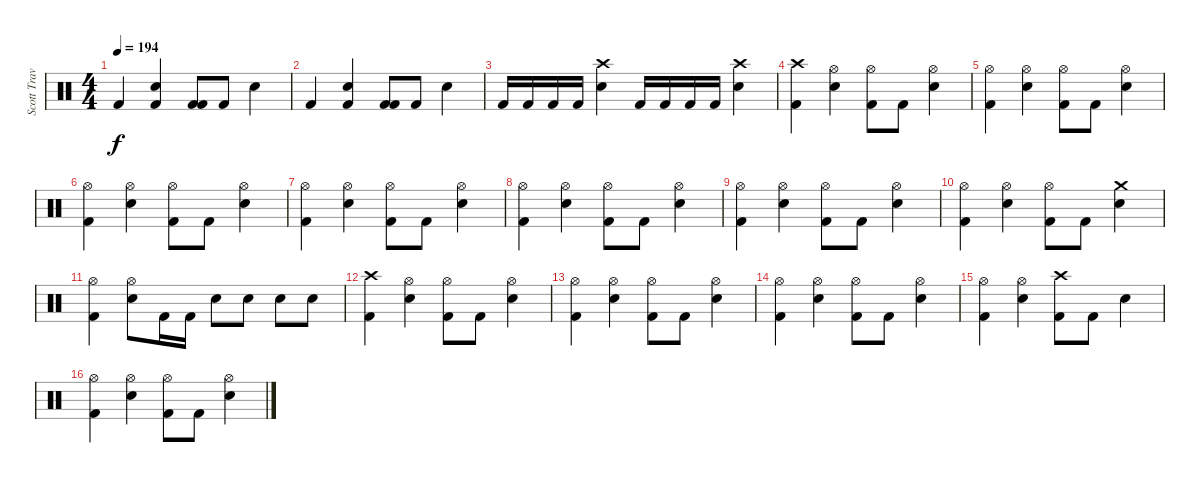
\track ("Scott Travis" "Scott Trav") {instrument percussion}
\staff {score}
\articulation defaults
\ts (4 4)
\tempo 194
\clef neutral
\ks c "Kick (hit) 2".4{dy f}
("Kick (hit) 2" "Snare (hit) 2").4 ("Kick (hit) 2" "Kick (hit) 2").8 "Kick (hit) 2".8 "Snare (hit) 2".4 |
"Kick (hit) 2".4 ("Kick (hit) 2" "Snare (hit) 2").4 ("Kick (hit) 2" "Kick (hit) 2").8 "Kick (hit) 2".8 "Snare (hit) 2".4 |
"Kick (hit) 2".16 "Kick (hit) 2".16 "Kick (hit) 2".16 "Kick (hit) 2".16 ("Crash high (hit)" "Snare (hit) 2").4 "Kick (hit) 2".16 "Kick (hit) 2".16 "Kick (hit) 2".16 "Kick (hit) 2".16 ("Crash high (hit)" "Snare (hit) 2").4 |
("Kick (hit) 2" "Crash high (hit)").4 ("Hi-Hat (open)" "Snare (hit) 2").4 ("Hi-Hat (open)" "Kick (hit) 2").8 "Kick (hit) 2".8 ("Snare (hit) 2" "Hi-Hat (open)").4 |
("Kick (hit) 2" "Hi-Hat (open)").4 ("Hi-Hat (open)" "Snare (hit) 2").4 ("Hi-Hat (open)" "Kick (hit) 2").8 "Kick (hit) 2".8 ("Snare (hit) 2" "Hi-Hat (open)").4 |
("Kick (hit) 2" "Hi-Hat (open)").4 ("Hi-Hat (open)" "Snare (hit) 2").4 ("Hi-Hat (open)" "Kick (hit) 2").8 "Kick (hit) 2".8 ("Snare (hit) 2" "Hi-Hat (open)").4 |
("Kick (hit) 2" "Hi-Hat (open)").4 ("Hi-Hat (open)" "Snare (hit) 2").4 ("Hi-Hat (open)" "Kick (hit) 2").8 "Kick (hit) 2".8 ("Snare (hit) 2" "Hi-Hat (open)").4 |
("Kick (hit) 2" "Hi-Hat (open)").4 ("Hi-Hat (open)" "Snare (hit) 2").4 ("Hi-Hat (open)" "Kick (hit) 2").8 "Kick (hit) 2".8 ("Snare (hit) 2" "Hi-Hat (open)").4 |
("Kick (hit) 2" "Hi-Hat (open)").4 ("Hi-Hat (open)" "Snare (hit) 2").4 ("Hi-Hat (open)" "Kick (hit) 2").8 "Kick (hit) 2".8 ("Snare (hit) 2" "Hi-Hat (open)").4 |
("Kick (hit) 2" "Hi-Hat (open)").4 ("Hi-Hat (open)" "Snare (hit) 2").4 ("Hi-Hat (open)" "Kick (hit) 2").8 "Kick (hit) 2".8 ("Snare (hit) 2" "Crash medium (hit)").4 |
("Kick (hit) 2" "Hi-Hat (open)").4 ("Hi-Hat (open)" "Snare (hit) 2").8 "Kick (hit) 2".16 "Kick (hit) 2".16 "Snare (hit) 2".8 "Snare (hit) 2".8 "Snare (hit) 2".8 "Snare (hit) 2".8 |
("Kick (hit) 2" "Crash high (hit)").4 ("Hi-Hat (open)" "Snare (hit) 2").4 ("Hi-Hat (open)" "Kick (hit) 2").8 "Kick (hit) 2".8 ("Snare (hit) 2" "Hi-Hat (open)").4 |
("Kick (hit) 2" "Hi-Hat (open)").4 ("Hi-Hat (open)" "Snare (hit) 2").4 ("Hi-Hat (open)" "Kick (hit) 2").8 "Kick (hit) 2".8 ("Snare (hit) 2" "Hi-Hat (open)").4 |
("Kick (hit) 2" "Hi-Hat (open)").4 ("Hi-Hat (open)" "Snare (hit) 2").4 ("Hi-Hat (open)" "Kick (hit) 2").8 "Kick (hit) 2".8 ("Snare (hit) 2" "Hi-Hat (open)").4 |
("Kick (hit) 2" "Hi-Hat (open)").4 ("Hi-Hat (open)" "Snare (hit) 2").4 ("Kick (hit) 2" "Crash high (hit)").8 "Kick (hit) 2".8 "Snare (hit) 2".4 |
("Kick (hit) 2" "Hi-Hat (open)").4 ("Hi-Hat (open)" "Snare (hit) 2").4 ("Hi-Hat (open)" "Kick (hit) 2").8 "Kick (hit) 2".8 ("Snare (hit) 2" "Hi-Hat (open)").4
